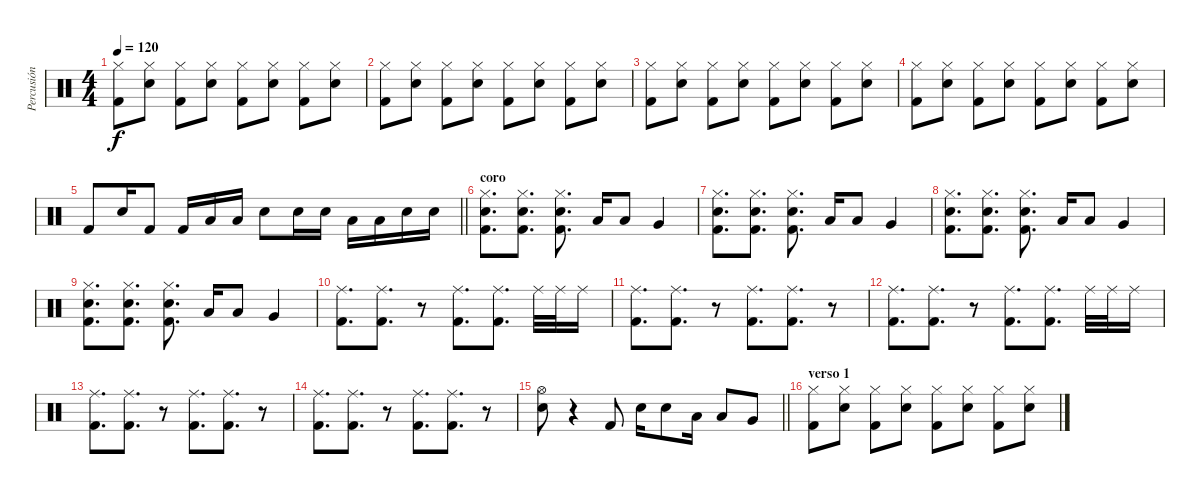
\track ("Percusión" "Percusión") {instrument percussion}
\staff {score}
\articulation defaults
\ts (4 4)
\tempo 120
\clef neutral
\ks c
("Hi-Hat (closed)" "Kick (hit) 2").8{dy f} ("Hi-Hat (closed)" "Electric Snare (hit)").8 ("Hi-Hat (closed)" "Kick (hit) 2").8 ("Hi-Hat (closed)" "Electric Snare (hit)").8 ("Hi-Hat (closed)" "Kick (hit) 2").8 ("Hi-Hat (closed)" "Electric Snare (hit)").8 ("Hi-Hat (closed)" "Kick (hit) 2").8 ("Hi-Hat (closed)" "Electric Snare (hit)").8 |
("Hi-Hat (closed)" "Kick (hit) 2").8 ("Hi-Hat (closed)" "Electric Snare (hit)").8 ("Hi-Hat (closed)" "Kick (hit) 2").8 ("Hi-Hat (closed)" "Electric Snare (hit)").8 ("Hi-Hat (closed)" "Kick (hit) 2").8 ("Hi-Hat (closed)" "Electric Snare (hit)").8 ("Hi-Hat (closed)" "Kick (hit) 2").8 ("Hi-Hat (closed)" "Electric Snare (hit)").8 |
("Hi-Hat (closed)" "Kick (hit) 2").8 ("Hi-Hat (closed)" "Electric Snare (hit)").8 ("Hi-Hat (closed)" "Kick (hit) 2").8 ("Hi-Hat (closed)" "Electric Snare (hit)").8 ("Hi-Hat (closed)" "Kick (hit) 2").8 ("Hi-Hat (closed)" "Electric Snare (hit)").8 ("Hi-Hat (closed)" "Kick (hit) 2").8 ("Hi-Hat (closed)" "Electric Snare (hit)").8 |
("Hi-Hat (closed)" "Kick (hit) 2").8 ("Hi-Hat (closed)" "Electric Snare (hit)").8 ("Hi-Hat (closed)" "Kick (hit) 2").8 ("Hi-Hat (closed)" "Electric Snare (hit)").8 ("Hi-Hat (closed)" "Kick (hit) 2").8 ("Hi-Hat (closed)" "Electric Snare (hit)").8 ("Hi-Hat (closed)" "Kick (hit) 2").8 ("Hi-Hat (closed)" "Electric Snare (hit)").8 |
\barLineRight lightlight "Kick (hit) 2".8 "Electric Snare (hit)".16 "Kick (hit) 2".8 "Kick (hit) 2".16 "Low Tom (hit)".16 "Low Tom (hit)".16 "Electric Snare (hit)".8 "Electric Snare (hit)".16 "Electric Snare (hit)".16 "Low Tom (hit)".16 "Low Tom (hit)".16 "Electric Snare (hit)".16 "Electric Snare (hit)".16
|
\section ("" "coro")
("Kick (hit) 2" "Electric Snare (hit)" "Hi-Hat (closed)").8{d} ("Kick (hit) 2" "Electric Snare (hit)" "Hi-Hat (closed)").8{d} ("Kick (hit) 2" "Electric Snare (hit)" "Hi-Hat (closed)").8{d} "Low Tom (hit)".16 "Low Tom (hit)".8 "Very Low Tom (hit)".4 |
("Kick (hit) 2" "Electric Snare (hit)" "Hi-Hat (closed)").8{d} ("Kick (hit) 2" "Electric Snare (hit)" "Hi-Hat (closed)").8{d} ("Kick (hit) 2" "Electric Snare (hit)" "Hi-Hat (closed)").8{d} "Low Tom (hit)".16 "Low Tom (hit)".8 "Very Low Tom (hit)".4 |
("Kick (hit) 2" "Electric Snare (hit)" "Hi-Hat (closed)").8{d} ("Kick (hit) 2" "Electric Snare (hit)" "Hi-Hat (closed)").8{d} ("Kick (hit) 2" "Electric Snare (hit)" "Hi-Hat (closed)").8{d} "Low Tom (hit)".16 "Low Tom (hit)".8 "Very Low Tom (hit)".4 |
("Kick (hit) 2" "Electric Snare (hit)" "Hi-Hat (closed)").8{d} ("Kick (hit) 2" "Electric Snare (hit)" "Hi-Hat (closed)").8{d} ("Kick (hit) 2" "Electric Snare (hit)" "Hi-Hat (closed)").8{d} "Low Tom (hit)".16 "Low Tom (hit)".8 "Very Low Tom (hit)".4 |
("Kick (hit) 2" "Ride (middle)").8{d} ("Kick (hit) 2" "Ride (middle)").8{d} r.8 ("Kick (hit) 2" "Ride (middle)").8{d} ("Kick (hit) 2" "Ride (middle)").8{d} "Ride (middle)".32 "Ride (middle)".32 "Ride (middle)".16 |
("Kick (hit) 2" "Ride (middle)").8{d} ("Kick (hit) 2" "Ride (middle)").8{d} r.8 ("Kick (hit) 2" "Ride (middle)").8{d} ("Kick (hit) 2" "Ride (middle)").8{d} r.8 |
("Kick (hit) 2" "Ride (middle)").8{d} ("Kick (hit) 2" "Ride (middle)").8{d} r.8 ("Kick (hit) 2" "Ride (middle)").8{d} ("Kick (hit) 2" "Ride (middle)").8{d} "Ride (middle)".32 "Ride (middle)".32 "Ride (middle)".16 |
("Kick (hit) 2" "Ride (middle)").8{d} ("Kick (hit) 2" "Ride (middle)").8{d} r.8 ("Kick (hit) 2" "Ride (middle)").8{d} ("Kick (hit) 2" "Ride (middle)").8{d} r.8 |
("Kick (hit) 2" "Ride (middle)").8{d} ("Kick (hit) 2" "Ride (middle)").8{d} r.8 ("Kick (hit) 2" "Ride (middle)").8{d} ("Kick (hit) 2" "Ride (middle)").8{d} r.8 |
\barLineRight lightlight
("Hi-Hat (open)" "Electric Snare (hit)").8 r.4 "Kick (hit) 2".8 "Electric Snare (hit)".16 "Electric Snare (hit)".8 "Low Tom (hit)".16 "Low Tom (hit)".8 "Very Low Tom (hit)".8 |
\section ("" "verso 1")
("Hi-Hat (closed)" "Kick (hit) 2").8 ("Hi-Hat (closed)" "Electric Snare (hit)").8 ("Hi-Hat (closed)" "Kick (hit) 2").8 ("Hi-Hat (closed)" "Electric Snare (hit)").8 ("Hi-Hat (closed)" "Kick (hit) 2").8 ("Hi-Hat (closed)" "Electric Snare (hit)").8 ("Hi-Hat (closed)" "Kick (hit) 2").8 ("Hi-Hat (closed)" "Electric Snare (hit)").8
